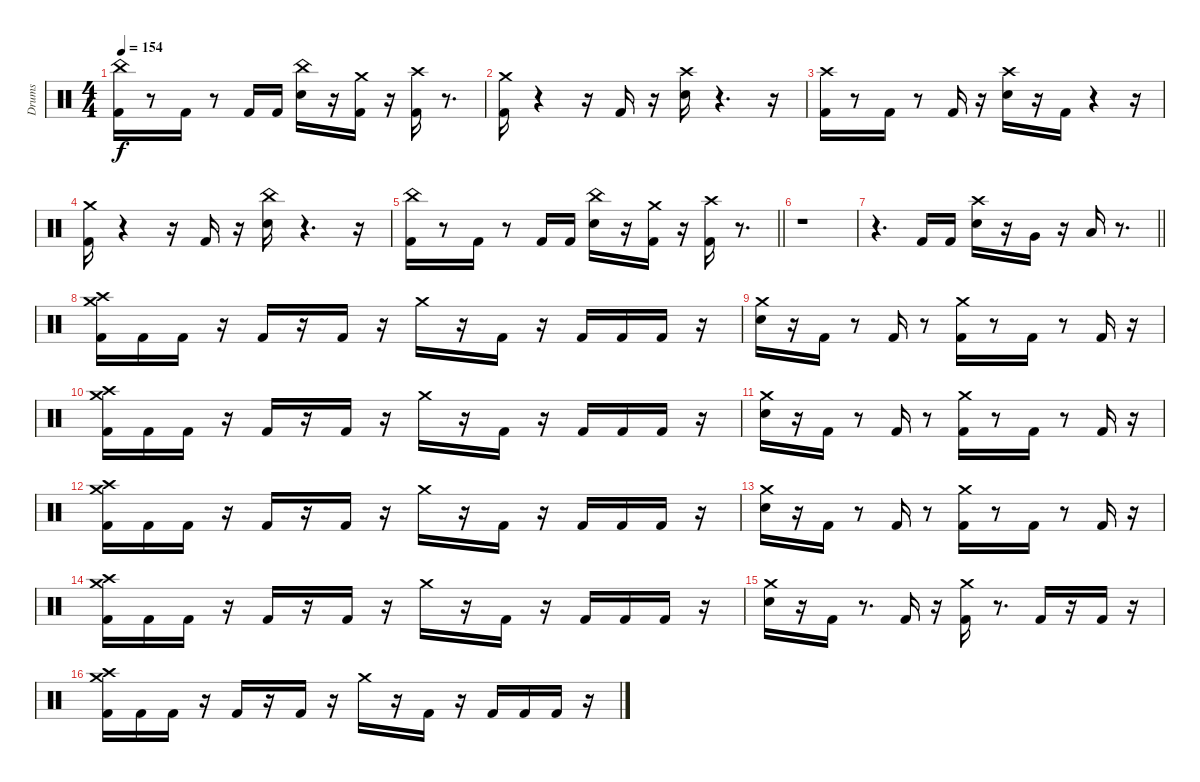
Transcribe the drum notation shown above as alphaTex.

\track ("Drums" "Drums") {instrument percussion}
\staff {score}
\articulation defaults
\ts (4 4)
\tempo 154
\clef neutral
\ks c
("Kick (hit) 2" "China (hit)").16{dy f} r.8 "Kick (hit) 2".16 r.8 "Kick (hit) 2".16 "Kick (hit) 2".16 ("Snare (hit) 2" "China (hit)").16 r.16 ("Kick (hit) 2" "Crash medium (hit)").16 r.16 ("Kick (hit) 2" "Crash high (hit)").16 r.8{d} |
("Kick (hit) 2" "Crash medium (hit)").16 r.4 r.16 "Kick (hit) 2".16 r.16 ("Snare (hit) 2" "Crash high (hit)").16 r.4{d} r.16 |
("Kick (hit) 2" "Crash high (hit)").16 r.8 "Kick (hit) 2".16 r.8 "Kick (hit) 2".16 r.16 ("Snare (hit) 2" "Crash high (hit)").16 r.16 "Kick (hit) 2".16 r.4 r.16 |
("Kick (hit) 2" "Crash medium (hit)").16 r.4 r.16 "Kick (hit) 2".16 r.16 ("Snare (hit) 2" "China (hit)").16 r.4{d} r.16 |
\barLineRight lightlight
("Kick (hit) 2" "China (hit)").16 r.8 "Kick (hit) 2".16 r.8 "Kick (hit) 2".16 "Kick (hit) 2".16 ("Snare (hit) 2" "China (hit)").16 r.16 ("Kick (hit) 2" "Crash medium (hit)").16 r.16 ("Kick (hit) 2" "Crash high (hit)").16 r.8{d} |
\section ("" " ")
r.1 |
\barLineRight lightlight
r.4{d} "Kick (hit) 2".16 "Kick (hit) 2".16 ("Snare (hit) 2" "Crash high (hit)").16 r.16 "Very Low Tom (hit)".16 r.16 "Low Floor Tom (hit)".16 r.8{d} |
\section ("" " ")
("Kick (hit) 2" "Crash high (hit)" "Crash medium (hit)").16 "Kick (hit) 2".16 "Kick (hit) 2".16 r.16 "Kick (hit) 2".16 r.16 "Kick (hit) 2".16 r.16 "Crash medium (hit)".16 r.16 "Kick (hit) 2".16 r.16 "Kick (hit) 2".16 "Kick (hit) 2".16 "Kick (hit) 2".16 r.16 |
("Snare (hit) 2" "Crash medium (hit)").16 r.16 "Kick (hit) 2".16 r.8 "Kick (hit) 2".16 r.8 ("Kick (hit) 2" "Crash medium (hit)").16 r.8 "Kick (hit) 2".16 r.8 "Kick (hit) 2".16 r.16 |
("Kick (hit) 2" "Crash high (hit)" "Crash medium (hit)").16 "Kick (hit) 2".16 "Kick (hit) 2".16 r.16 "Kick (hit) 2".16 r.16 "Kick (hit) 2".16 r.16 "Crash medium (hit)".16 r.16 "Kick (hit) 2".16 r.16 "Kick (hit) 2".16 "Kick (hit) 2".16 "Kick (hit) 2".16 r.16 |
("Snare (hit) 2" "Crash medium (hit)").16 r.16 "Kick (hit) 2".16 r.8 "Kick (hit) 2".16 r.8 ("Kick (hit) 2" "Crash medium (hit)").16 r.8 "Kick (hit) 2".16 r.8 "Kick (hit) 2".16 r.16 |
("Kick (hit) 2" "Crash high (hit)" "Crash medium (hit)").16 "Kick (hit) 2".16 "Kick (hit) 2".16 r.16 "Kick (hit) 2".16 r.16 "Kick (hit) 2".16 r.16 "Crash medium (hit)".16 r.16 "Kick (hit) 2".16 r.16 "Kick (hit) 2".16 "Kick (hit) 2".16 "Kick (hit) 2".16 r.16 |
("Snare (hit) 2" "Crash medium (hit)").16 r.16 "Kick (hit) 2".16 r.8 "Kick (hit) 2".16 r.8 ("Kick (hit) 2" "Crash medium (hit)").16 r.8 "Kick (hit) 2".16 r.8 "Kick (hit) 2".16 r.16 |
("Kick (hit) 2" "Crash high (hit)" "Crash medium (hit)").16 "Kick (hit) 2".16 "Kick (hit) 2".16 r.16 "Kick (hit) 2".16 r.16 "Kick (hit) 2".16 r.16 "Crash medium (hit)".16 r.16 "Kick (hit) 2".16 r.16 "Kick (hit) 2".16 "Kick (hit) 2".16 "Kick (hit) 2".16 r.16 |
("Snare (hit) 2" "Crash medium (hit)").16 r.16 "Kick (hit) 2".16 r.8{d} "Kick (hit) 2".16 r.16 ("Kick (hit) 2" "Crash medium (hit)").16 r.8{d} "Kick (hit) 2".16 r.16 "Kick (hit) 2".16 r.16 |
("Kick (hit) 2" "Crash high (hit)" "Crash medium (hit)").16 "Kick (hit) 2".16 "Kick (hit) 2".16 r.16 "Kick (hit) 2".16 r.16 "Kick (hit) 2".16 r.16 "Crash medium (hit)".16 r.16 "Kick (hit) 2".16 r.16 "Kick (hit) 2".16 "Kick (hit) 2".16 "Kick (hit) 2".16 r.16
